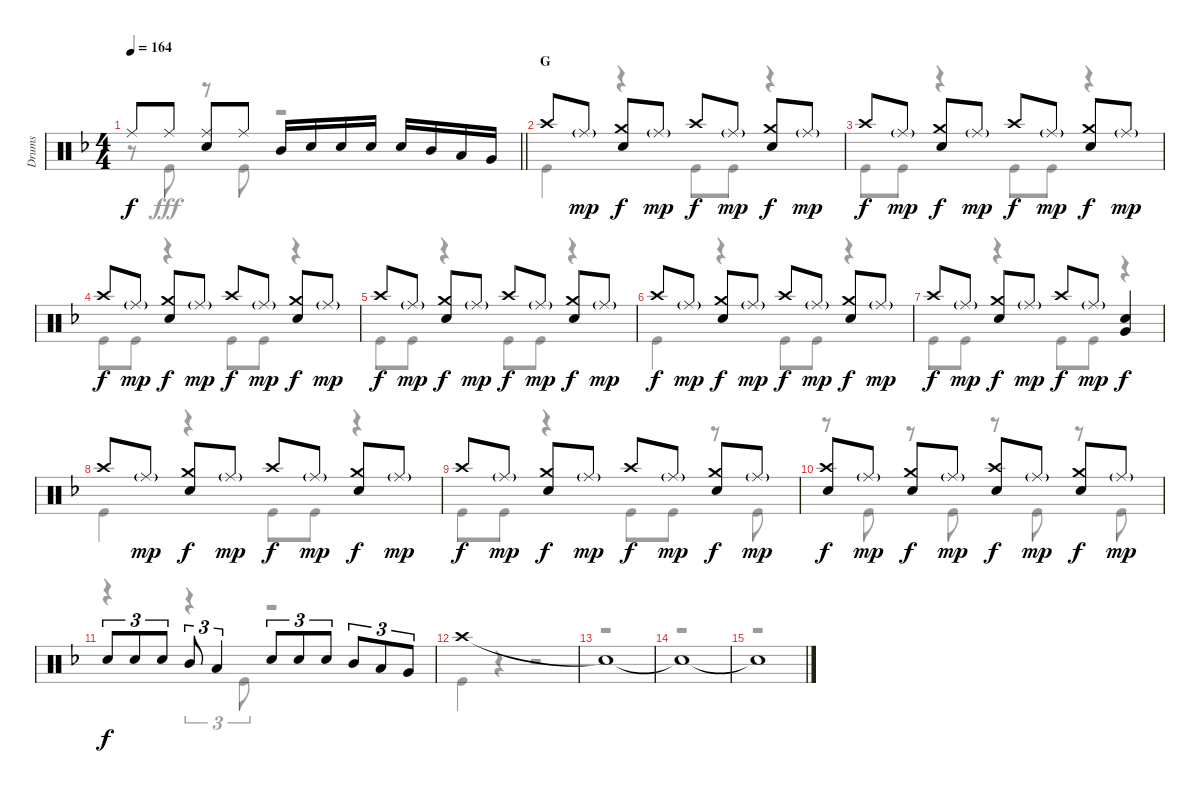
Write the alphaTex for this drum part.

\track ("Drums" "Drums") {instrument percussion}
\staff {score}
\articulation defaults
\voice
\ts (4 4)
\tempo 164
\clef neutral
\barLineRight lightlight
\ks f "Ride (middle)".8{dy f} "Ride (middle)".8
("Ride (middle)" "Snare (hit) 2").8 "Ride (middle)".8 "Mid Tom (hit)".16 "Snare (hit) 2".16 "Snare (hit) 2".16 "Snare (hit) 2".16 "Snare (hit) 2".16 "Mid Tom (hit)".16 "Low Tom (hit)".16 "Very Low Tom (hit)".16 |
\section ("" "G")
"Crash high (hit)".8 "Ride (middle)"{g}.8{dy mp} ("Crash medium (hit)" "Snare (hit) 2").8{dy f} "Ride (middle)"{g}.8{dy mp} "Crash high (hit)".8{dy f} "Ride (middle)"{g}.8{dy mp} ("Crash medium (hit)" "Snare (hit) 2").8{dy f} "Ride (middle)"{g}.8{dy mp} |
"Crash high (hit)".8{dy f} "Ride (middle)"{g}.8{dy mp} ("Crash medium (hit)" "Snare (hit) 2").8{dy f} "Ride (middle)"{g}.8{dy mp} "Crash high (hit)".8{dy f} "Ride (middle)"{g}.8{dy mp} ("Crash medium (hit)" "Snare (hit) 2").8{dy f} "Ride (middle)"{g}.8{dy mp} |
"Crash high (hit)".8{dy f} "Ride (middle)"{g}.8{dy mp} ("Crash medium (hit)" "Snare (hit) 2").8{dy f} "Ride (middle)"{g}.8{dy mp} "Crash high (hit)".8{dy f} "Ride (middle)"{g}.8{dy mp} ("Crash medium (hit)" "Snare (hit) 2").8{dy f} "Ride (middle)"{g}.8{dy mp} |
"Crash high (hit)".8{dy f} "Ride (middle)"{g}.8{dy mp} ("Crash medium (hit)" "Snare (hit) 2").8{dy f} "Ride (middle)"{g}.8{dy mp} "Crash high (hit)".8{dy f} "Ride (middle)"{g}.8{dy mp} ("Crash medium (hit)" "Snare (hit) 2").8{dy f} "Ride (middle)"{g}.8{dy mp} |
"Crash high (hit)".8{dy f} "Ride (middle)"{g}.8{dy mp} ("Crash medium (hit)" "Snare (hit) 2").8{dy f} "Ride (middle)"{g}.8{dy mp} "Crash high (hit)".8{dy f} "Ride (middle)"{g}.8{dy mp} ("Crash medium (hit)" "Snare (hit) 2").8{dy f} "Ride (middle)"{g}.8{dy mp} |
"Crash high (hit)".8{dy f} "Ride (middle)"{g}.8{dy mp} ("Crash medium (hit)" "Snare (hit) 2").8{dy f} "Ride (middle)"{g}.8{dy mp} "Crash high (hit)".8{dy f} "Ride (middle)"{g}.8{dy mp} ("Snare (hit) 2" "Very Low Tom (hit)").4{dy f} |
"Crash high (hit)".8 "Ride (middle)"{g}.8{dy mp} ("Crash medium (hit)" "Snare (hit) 2").8{dy f} "Ride (middle)"{g}.8{dy mp} "Crash high (hit)".8{dy f} "Ride (middle)"{g}.8{dy mp} ("Crash medium (hit)" "Snare (hit) 2").8{dy f} "Ride (middle)"{g}.8{dy mp} |
"Crash high (hit)".8{dy f} "Ride (middle)"{g}.8{dy mp} ("Crash medium (hit)" "Snare (hit) 2").8{dy f} "Ride (middle)"{g}.8{dy mp} "Crash high (hit)".8{dy f} "Ride (middle)"{g}.8{dy mp} ("Crash medium (hit)" "Snare (hit) 2").8{dy f} "Ride (middle)"{g}.8{dy mp} |
("Crash high (hit)" "Snare (hit) 2").8{dy f} "Ride (middle)"{g}.8{dy mp} ("Crash medium (hit)" "Snare (hit) 2").8{dy f} "Ride (middle)"{g}.8{dy mp} ("Crash high (hit)" "Snare (hit) 2").8{dy f} "Ride (middle)"{g}.8{dy mp} ("Crash medium (hit)" "Snare (hit) 2").8{dy f} "Ride (middle)"{g}.8{dy mp} |
"Snare (hit) 2".8{tu (3 2) dy f} "Snare (hit) 2".8{tu (3 2)} "Snare (hit) 2".8{tu (3 2)} "Mid Tom (hit)".8{tu (3 2)} "Low Tom (hit)".4{tu (3 2)} "Snare (hit) 2".8{tu (3 2)} "Snare (hit) 2".8{tu (3 2)} "Snare (hit) 2".8{tu (3 2)} "Mid Tom (hit)".8{tu (3 2)} "Low Tom (hit)".8{tu (3 2)} "Very Low Tom (hit)".8{tu (3 2)} |
"Crash high (hit)".1 |
"Snare (hit)"{t}.1 |
"Snare (hit)"{t}.1 |
"Snare (hit)"{t}.1
\voice
\clef neutral
\ottava regular
\simile none
\barLineRight lightlight
\ks f
r.8{dy fff} "Kick (hit)".8 r.8 "Kick (hit)".8 r.2 |
"Kick (hit)".4 r.4 "Kick (hit)".8 "Kick (hit)".8 r.4 |
"Kick (hit)".8 "Kick (hit)".8 r.4 "Kick (hit)".8 "Kick (hit)".8 r.4 |
"Kick (hit)".8 "Kick (hit)".8 r.4 "Kick (hit)".8 "Kick (hit)".8 r.4 |
"Kick (hit)".8 "Kick (hit)".8 r.4 "Kick (hit)".8 "Kick (hit)".8 r.4 |
"Kick (hit)".4 r.4 "Kick (hit)".8 "Kick (hit)".8 r.4 |
"Kick (hit)".8 "Kick (hit)".8 r.4 "Kick (hit)".8 "Kick (hit)".8 r.4 |
"Kick (hit)".4 r.4 "Kick (hit)".8 "Kick (hit)".8 r.4 |
"Kick (hit)".8 "Kick (hit)".8 r.4 "Kick (hit)".8 "Kick (hit)".8 r.8 "Kick (hit)".8 |
r.8 "Kick (hit)".8 r.8 "Kick (hit)".8 r.8 "Kick (hit)".8 r.8 "Kick (hit)".8 |
r.4 r.4{tu (3 2)} "Kick (hit)".8{tu (3 2)} r.2 |
"Kick (hit)".4 r.4 r.2 |
r.1 |
r.1 |
r.1
